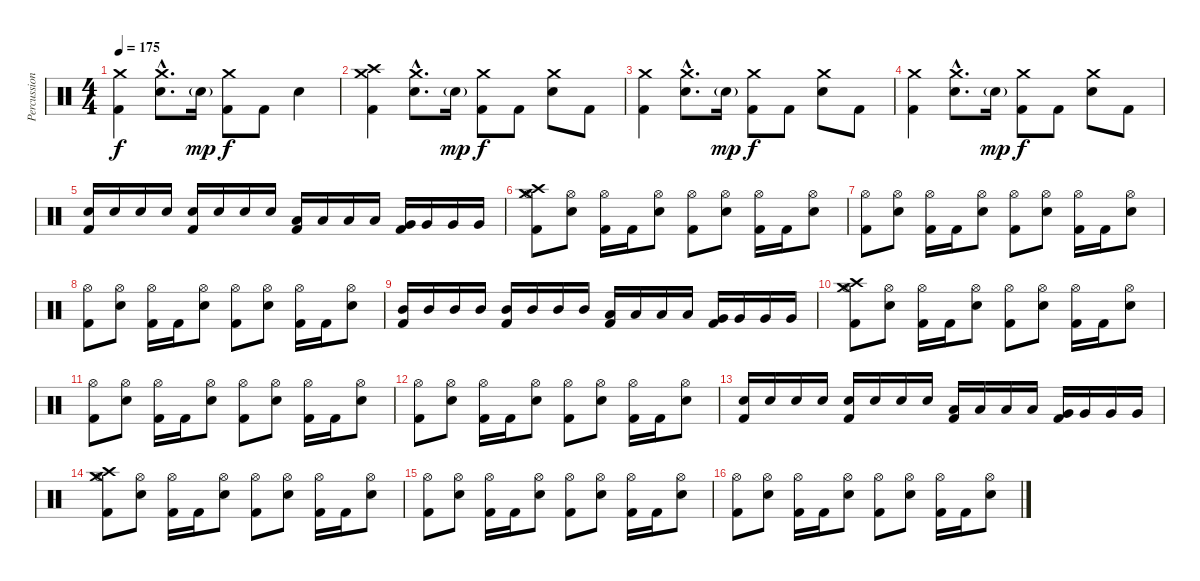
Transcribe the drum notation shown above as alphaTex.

\track ("Percussions" "Percussion") {instrument percussion}
\staff {score}
\articulation defaults
\ts (4 4)
\tempo 175
\clef neutral
\ks c
("Crash medium (hit)" "Kick (hit) 2").4{dy f} ("Crash medium (hit)"{hac} "Electric Snare (hit)"{hac}).8{d} "Electric Snare (hit)"{g}.16{dy mp} ("Crash medium (hit)" "Kick (hit) 2").8{dy f} "Kick (hit) 2".8 "Electric Snare (hit)".4 |
("Crash medium (hit)" "Crash high (hit)" "Kick (hit) 2").4 ("Crash medium (hit)"{hac} "Electric Snare (hit)"{hac}).8{d} "Electric Snare (hit)"{g}.16{dy mp} ("Crash medium (hit)" "Kick (hit) 2").8{dy f} "Kick (hit) 2".8 ("Crash medium (hit)" "Electric Snare (hit)").8 "Kick (hit) 2".8 |
("Crash medium (hit)" "Kick (hit) 2").4 ("Crash medium (hit)"{hac} "Electric Snare (hit)"{hac}).8{d} "Electric Snare (hit)"{g}.16{dy mp} ("Crash medium (hit)" "Kick (hit) 2").8{dy f} "Kick (hit) 2".8 ("Crash medium (hit)" "Electric Snare (hit)").8 "Kick (hit) 2".8 |
("Crash medium (hit)" "Kick (hit) 2").4 ("Crash medium (hit)"{hac} "Electric Snare (hit)"{hac}).8{d} "Electric Snare (hit)"{g}.16{dy mp} ("Crash medium (hit)" "Kick (hit) 2").8{dy f} "Kick (hit) 2".8 ("Crash medium (hit)" "Electric Snare (hit)").8 "Kick (hit) 2".8 |
("Electric Snare (hit)" "Kick (hit) 2").16 "Electric Snare (hit)".16 "Electric Snare (hit)".16 "Electric Snare (hit)".16 ("Electric Snare (hit)" "Kick (hit) 2").16 "Electric Snare (hit)".16 "Electric Snare (hit)".16 "Electric Snare (hit)".16 ("Low Tom (hit)" "Kick (hit) 2").16 "Low Tom (hit)".16 "Low Tom (hit)".16 "Low Tom (hit)".16 ("Very Low Tom (hit)" "Kick (hit) 2").16 "Very Low Tom (hit)".16 "Very Low Tom (hit)".16 "Very Low Tom (hit)".16 |
("Hi-Hat (open)" "Crash high (hit)" "Crash medium (hit)" "Kick (hit) 2").8 ("Hi-Hat (open)" "Electric Snare (hit)").8 ("Hi-Hat (open)" "Kick (hit) 2").16 "Kick (hit) 2".16 ("Hi-Hat (open)" "Electric Snare (hit)").8 ("Hi-Hat (open)" "Kick (hit) 2").8 ("Hi-Hat (open)" "Electric Snare (hit)").8 ("Hi-Hat (open)" "Kick (hit) 2").16 "Kick (hit) 2".16 ("Hi-Hat (open)" "Electric Snare (hit)").8 |
("Hi-Hat (open)" "Kick (hit) 2").8 ("Hi-Hat (open)" "Electric Snare (hit)").8 ("Hi-Hat (open)" "Kick (hit) 2").16 "Kick (hit) 2".16 ("Hi-Hat (open)" "Electric Snare (hit)").8 ("Hi-Hat (open)" "Kick (hit) 2").8 ("Hi-Hat (open)" "Electric Snare (hit)").8 ("Hi-Hat (open)" "Kick (hit) 2").16 "Kick (hit) 2".16 ("Hi-Hat (open)" "Electric Snare (hit)").8 |
("Hi-Hat (open)" "Kick (hit) 2").8 ("Hi-Hat (open)" "Electric Snare (hit)").8 ("Hi-Hat (open)" "Kick (hit) 2").16 "Kick (hit) 2".16 ("Hi-Hat (open)" "Electric Snare (hit)").8 ("Hi-Hat (open)" "Kick (hit) 2").8 ("Hi-Hat (open)" "Electric Snare (hit)").8 ("Hi-Hat (open)" "Kick (hit) 2").16 "Kick (hit) 2".16 ("Hi-Hat (open)" "Electric Snare (hit)").8 |
("Mid Tom (hit)" "Kick (hit) 2").16 "Mid Tom (hit)".16 "Mid Tom (hit)".16 "Mid Tom (hit)".16 ("Mid Tom (hit)" "Kick (hit) 2").16 "Mid Tom (hit)".16 "Mid Tom (hit)".16 "Mid Tom (hit)".16 ("Low Tom (hit)" "Kick (hit) 2").16 "Low Tom (hit)".16 "Low Tom (hit)".16 "Low Tom (hit)".16 ("Very Low Tom (hit)" "Kick (hit) 2").16 "Very Low Tom (hit)".16 "Very Low Tom (hit)".16 "Very Low Tom (hit)".16 |
("Hi-Hat (open)" "Crash high (hit)" "Crash medium (hit)" "Kick (hit) 2").8 ("Hi-Hat (open)" "Electric Snare (hit)").8 ("Hi-Hat (open)" "Kick (hit) 2").16 "Kick (hit) 2".16 ("Hi-Hat (open)" "Electric Snare (hit)").8 ("Hi-Hat (open)" "Kick (hit) 2").8 ("Hi-Hat (open)" "Electric Snare (hit)").8 ("Hi-Hat (open)" "Kick (hit) 2").16 "Kick (hit) 2".16 ("Hi-Hat (open)" "Electric Snare (hit)").8 |
("Hi-Hat (open)" "Kick (hit) 2").8 ("Hi-Hat (open)" "Electric Snare (hit)").8 ("Hi-Hat (open)" "Kick (hit) 2").16 "Kick (hit) 2".16 ("Hi-Hat (open)" "Electric Snare (hit)").8 ("Hi-Hat (open)" "Kick (hit) 2").8 ("Hi-Hat (open)" "Electric Snare (hit)").8 ("Hi-Hat (open)" "Kick (hit) 2").16 "Kick (hit) 2".16 ("Hi-Hat (open)" "Electric Snare (hit)").8 |
("Hi-Hat (open)" "Kick (hit) 2").8 ("Hi-Hat (open)" "Electric Snare (hit)").8 ("Hi-Hat (open)" "Kick (hit) 2").16 "Kick (hit) 2".16 ("Hi-Hat (open)" "Electric Snare (hit)").8 ("Hi-Hat (open)" "Kick (hit) 2").8 ("Hi-Hat (open)" "Electric Snare (hit)").8 ("Hi-Hat (open)" "Kick (hit) 2").16 "Kick (hit) 2".16 ("Hi-Hat (open)" "Electric Snare (hit)").8 |
("Electric Snare (hit)" "Kick (hit) 2").16 "Electric Snare (hit)".16 "Electric Snare (hit)".16 "Electric Snare (hit)".16 ("Electric Snare (hit)" "Kick (hit) 2").16 "Electric Snare (hit)".16 "Electric Snare (hit)".16 "Electric Snare (hit)".16 ("Low Tom (hit)" "Kick (hit) 2").16 "Low Tom (hit)".16 "Low Tom (hit)".16 "Low Tom (hit)".16 ("Very Low Tom (hit)" "Kick (hit) 2").16 "Very Low Tom (hit)".16 "Very Low Tom (hit)".16 "Very Low Tom (hit)".16 |
("Hi-Hat (open)" "Crash high (hit)" "Crash medium (hit)" "Kick (hit) 2").8 ("Hi-Hat (open)" "Electric Snare (hit)").8 ("Hi-Hat (open)" "Kick (hit) 2").16 "Kick (hit) 2".16 ("Hi-Hat (open)" "Electric Snare (hit)").8 ("Hi-Hat (open)" "Kick (hit) 2").8 ("Hi-Hat (open)" "Electric Snare (hit)").8 ("Hi-Hat (open)" "Kick (hit) 2").16 "Kick (hit) 2".16 ("Hi-Hat (open)" "Electric Snare (hit)").8 |
("Hi-Hat (open)" "Kick (hit) 2").8 ("Hi-Hat (open)" "Electric Snare (hit)").8 ("Hi-Hat (open)" "Kick (hit) 2").16 "Kick (hit) 2".16 ("Hi-Hat (open)" "Electric Snare (hit)").8 ("Hi-Hat (open)" "Kick (hit) 2").8 ("Hi-Hat (open)" "Electric Snare (hit)").8 ("Hi-Hat (open)" "Kick (hit) 2").16 "Kick (hit) 2".16 ("Hi-Hat (open)" "Electric Snare (hit)").8 |
("Hi-Hat (open)" "Kick (hit) 2").8 ("Hi-Hat (open)" "Electric Snare (hit)").8 ("Hi-Hat (open)" "Kick (hit) 2").16 "Kick (hit) 2".16 ("Hi-Hat (open)" "Electric Snare (hit)").8 ("Hi-Hat (open)" "Kick (hit) 2").8 ("Hi-Hat (open)" "Electric Snare (hit)").8 ("Hi-Hat (open)" "Kick (hit) 2").16 "Kick (hit) 2".16 ("Hi-Hat (open)" "Electric Snare (hit)").8
